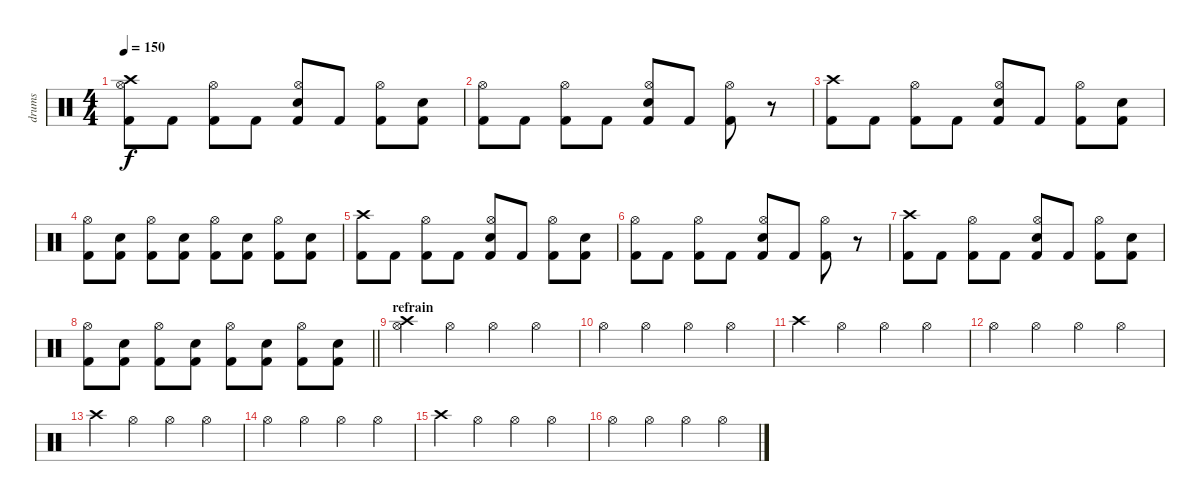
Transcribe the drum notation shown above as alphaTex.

\track ("drums" "drums") {instrument percussion}
\staff {score}
\articulation defaults
\ts (4 4)
\tempo 150
\clef neutral
\ks c
("Kick (hit) 2" "Crash high (hit)" "Hi-Hat (open)").8{dy f} "Kick (hit) 2".8 ("Kick (hit) 2" "Hi-Hat (open)").8 "Kick (hit) 2".8 ("Kick (hit) 2" "Snare (hit) 2" "Hi-Hat (open)").8 "Kick (hit) 2".8 ("Kick (hit) 2" "Hi-Hat (open)").8 ("Kick (hit) 2" "Snare (hit) 2").8 |
("Kick (hit) 2" "Hi-Hat (open)").8 "Kick (hit) 2".8 ("Kick (hit) 2" "Hi-Hat (open)").8 "Kick (hit) 2".8 ("Kick (hit) 2" "Snare (hit) 2" "Hi-Hat (open)").8 "Kick (hit) 2".8 ("Kick (hit) 2" "Hi-Hat (open)").8 r.8 |
("Kick (hit) 2" "Crash high (hit)").8 "Kick (hit) 2".8 ("Kick (hit) 2" "Hi-Hat (open)").8 "Kick (hit) 2".8 ("Kick (hit) 2" "Snare (hit) 2" "Hi-Hat (open)").8 "Kick (hit) 2".8 ("Kick (hit) 2" "Hi-Hat (open)").8 ("Kick (hit) 2" "Snare (hit) 2").8 |
("Kick (hit) 2" "Hi-Hat (open)").8 ("Kick (hit) 2" "Snare (hit) 2").8 ("Kick (hit) 2" "Hi-Hat (open)").8 ("Kick (hit) 2" "Snare (hit) 2").8 ("Kick (hit) 2" "Hi-Hat (open)").8 ("Kick (hit) 2" "Snare (hit) 2").8 ("Kick (hit) 2" "Hi-Hat (open)").8 ("Kick (hit) 2" "Snare (hit) 2").8 |
("Kick (hit) 2" "Crash high (hit)").8 "Kick (hit) 2".8 ("Kick (hit) 2" "Hi-Hat (open)").8 "Kick (hit) 2".8 ("Kick (hit) 2" "Snare (hit) 2" "Hi-Hat (open)").8 "Kick (hit) 2".8 ("Kick (hit) 2" "Hi-Hat (open)").8 ("Kick (hit) 2" "Snare (hit) 2").8 |
("Kick (hit) 2" "Hi-Hat (open)").8 "Kick (hit) 2".8 ("Kick (hit) 2" "Hi-Hat (open)").8 "Kick (hit) 2".8 ("Kick (hit) 2" "Snare (hit) 2" "Hi-Hat (open)").8 "Kick (hit) 2".8 ("Kick (hit) 2" "Hi-Hat (open)").8 r.8 |
("Kick (hit) 2" "Crash high (hit)").8 "Kick (hit) 2".8 ("Kick (hit) 2" "Hi-Hat (open)").8 "Kick (hit) 2".8 ("Kick (hit) 2" "Snare (hit) 2" "Hi-Hat (open)").8 "Kick (hit) 2".8 ("Kick (hit) 2" "Hi-Hat (open)").8 ("Kick (hit) 2" "Snare (hit) 2").8 |
\barLineRight lightlight
("Kick (hit) 2" "Hi-Hat (open)").8 ("Kick (hit) 2" "Snare (hit) 2").8 ("Kick (hit) 2" "Hi-Hat (open)").8 ("Kick (hit) 2" "Snare (hit) 2").8 ("Kick (hit) 2" "Hi-Hat (open)").8 ("Kick (hit) 2" "Snare (hit) 2").8 ("Kick (hit) 2" "Hi-Hat (open)").8 ("Kick (hit) 2" "Snare (hit) 2").8 |
\section ("" "refrain")
("Crash high (hit)" "Hi-Hat (open)").4 "Hi-Hat (open)".4 "Hi-Hat (open)".4 "Hi-Hat (open)".4 |
"Hi-Hat (open)".4 "Hi-Hat (open)".4 "Hi-Hat (open)".4 "Hi-Hat (open)".4 |
"Crash high (hit)".4 "Hi-Hat (open)".4 "Hi-Hat (open)".4 "Hi-Hat (open)".4 |
"Hi-Hat (open)".4 "Hi-Hat (open)".4 "Hi-Hat (open)".4 "Hi-Hat (open)".4 |
"Crash high (hit)".4 "Hi-Hat (open)".4 "Hi-Hat (open)".4 "Hi-Hat (open)".4 |
"Hi-Hat (open)".4 "Hi-Hat (open)".4 "Hi-Hat (open)".4 "Hi-Hat (open)".4 |
"Crash high (hit)".4 "Hi-Hat (open)".4 "Hi-Hat (open)".4 "Hi-Hat (open)".4 |
"Hi-Hat (open)".4 "Hi-Hat (open)".4 "Hi-Hat (open)".4 "Hi-Hat (open)".4
